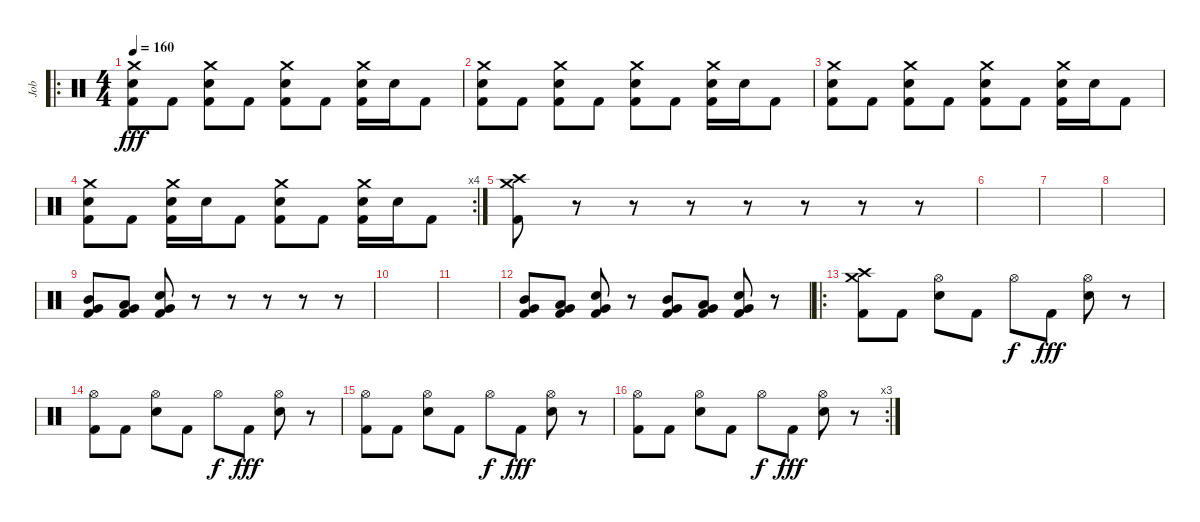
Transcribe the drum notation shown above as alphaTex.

\track ("Job" "Job") {instrument percussion}
\staff {score}
\articulation defaults
\ro
\ts (4 4)
\tempo 160
\clef neutral
\ks c
("Crash medium (hit)" "Electric Snare (hit)" "Kick (hit) 2").8{dy fff} "Kick (hit) 2".8 ("Crash medium (hit)" "Electric Snare (hit)" "Kick (hit) 2").8 "Kick (hit) 2".8 ("Crash medium (hit)" "Electric Snare (hit)" "Kick (hit) 2").8 "Kick (hit) 2".8 ("Crash medium (hit)" "Electric Snare (hit)" "Kick (hit) 2").16 "Electric Snare (hit)".16 "Kick (hit) 2".8 |
("Crash medium (hit)" "Electric Snare (hit)" "Kick (hit) 2").8 "Kick (hit) 2".8 ("Crash medium (hit)" "Electric Snare (hit)" "Kick (hit) 2").8 "Kick (hit) 2".8 ("Crash medium (hit)" "Electric Snare (hit)" "Kick (hit) 2").8 "Kick (hit) 2".8 ("Crash medium (hit)" "Electric Snare (hit)" "Kick (hit) 2").16 "Electric Snare (hit)".16 "Kick (hit) 2".8 |
("Crash medium (hit)" "Electric Snare (hit)" "Kick (hit) 2").8 "Kick (hit) 2".8 ("Crash medium (hit)" "Electric Snare (hit)" "Kick (hit) 2").8 "Kick (hit) 2".8 ("Crash medium (hit)" "Electric Snare (hit)" "Kick (hit) 2").8 "Kick (hit) 2".8 ("Crash medium (hit)" "Electric Snare (hit)" "Kick (hit) 2").16 "Electric Snare (hit)".16 "Kick (hit) 2".8 |
\rc 4
("Crash medium (hit)" "Electric Snare (hit)" "Kick (hit) 2").8 "Kick (hit) 2".8 ("Crash medium (hit)" "Electric Snare (hit)" "Kick (hit) 2").16 "Electric Snare (hit)".16 "Kick (hit) 2".8 ("Crash medium (hit)" "Electric Snare (hit)" "Kick (hit) 2").8 "Kick (hit) 2".8 ("Crash medium (hit)" "Electric Snare (hit)" "Kick (hit) 2").16 "Electric Snare (hit)".16 "Kick (hit) 2".8 |
("Crash medium (hit)" "Crash high (hit)" "Kick (hit) 2").8 r.8 r.8 r.8 r.8 r.8 r.8 r.8 |
|
|
|
("Mid Tom (hit)" "Very Low Tom (hit)" "Kick (hit) 2").8 ("Low Tom (hit)" "Very Low Tom (hit)" "Kick (hit) 2").8 ("Electric Snare (hit)" "Very Low Tom (hit)" "Kick (hit) 2").8 r.8 r.8 r.8 r.8 r.8 |
|
|
("Mid Tom (hit)" "Very Low Tom (hit)" "Kick (hit) 2").8 ("Low Tom (hit)" "Very Low Tom (hit)" "Kick (hit) 2").8 ("Electric Snare (hit)" "Very Low Tom (hit)" "Kick (hit) 2").8 r.8 ("Mid Tom (hit)" "Very Low Tom (hit)" "Kick (hit) 2").8 ("Low Tom (hit)" "Very Low Tom (hit)" "Kick (hit) 2").8 ("Electric Snare (hit)" "Very Low Tom (hit)" "Kick (hit) 2").8 r.8 |
\ro
("Crash medium (hit)" "Crash high (hit)" "Kick (hit) 2").8 "Kick (hit) 2".8 ("Hi-Hat (open)" "Electric Snare (hit)").8 "Kick (hit) 2".8 "Hi-Hat (open)".8{dy f} "Kick (hit) 2".8{dy fff} ("Hi-Hat (open)" "Electric Snare (hit)").8 r.8 |
("Hi-Hat (open)" "Kick (hit) 2").8 "Kick (hit) 2".8 ("Hi-Hat (open)" "Electric Snare (hit)").8 "Kick (hit) 2".8 "Hi-Hat (open)".8{dy f} "Kick (hit) 2".8{dy fff} ("Hi-Hat (open)" "Electric Snare (hit)").8 r.8 |
("Hi-Hat (open)" "Kick (hit) 2").8 "Kick (hit) 2".8 ("Hi-Hat (open)" "Electric Snare (hit)").8 "Kick (hit) 2".8 "Hi-Hat (open)".8{dy f} "Kick (hit) 2".8{dy fff} ("Hi-Hat (open)" "Electric Snare (hit)").8 r.8 |
\rc 3
("Hi-Hat (open)" "Kick (hit) 2").8 "Kick (hit) 2".8 ("Hi-Hat (open)" "Electric Snare (hit)").8 "Kick (hit) 2".8 "Hi-Hat (open)".8{dy f} "Kick (hit) 2".8{dy fff} ("Hi-Hat (open)" "Electric Snare (hit)").8 r.8
